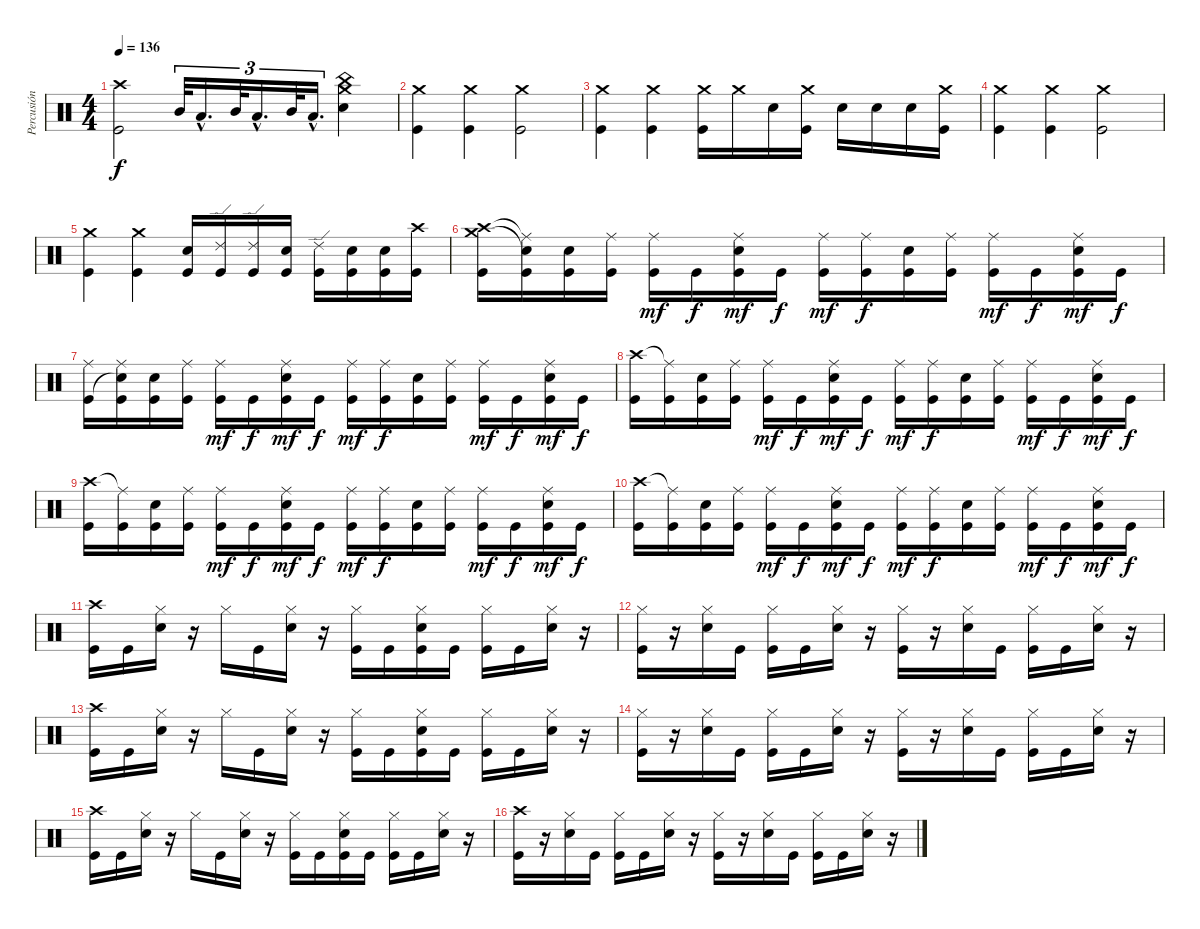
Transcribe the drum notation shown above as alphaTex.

\track ("Percusión" "Percusión") {instrument percussion}
\staff {score}
\articulation defaults
\ts (4 4)
\tempo 136
\clef neutral
\ks c
("Crash high (hit)" "Kick (hit)").2{dy f} "Mid Tom (hit)".32{tu (3 2)} "Low Tom (hit)"{hac}.16{d tu (3 2)} "Mid Tom (hit)".32{tu (3 2)} "Low Tom (hit)"{hac}.16{d tu (3 2)} "Mid Tom (hit)".32{tu (3 2)} "Low Tom (hit)"{hac}.16{d tu (3 2)} ("China (hit)" "Crash medium (hit)" "Snare (hit) 2").4 |
("Crash medium (hit)" "Kick (hit)").4 ("Crash medium (hit)" "Kick (hit)").4 ("Crash medium (hit)" "Kick (hit)").2 |
("Crash medium (hit)" "Kick (hit)").4 ("Crash medium (hit)" "Kick (hit)").4 ("Crash medium (hit)" "Kick (hit)").16 "Crash medium (hit)".16 "Snare (hit) 2".16 ("Crash medium (hit)" "Kick (hit)").16 "Snare (hit) 2".16 "Snare (hit) 2".16 "Snare (hit) 2".16 ("Crash medium (hit)" "Kick (hit)").16 |
("Crash medium (hit)" "Kick (hit)").4 ("Crash medium (hit)" "Kick (hit)").4 ("Crash medium (hit)" "Kick (hit)").2 |
("Crash medium (hit)" "Kick (hit)").4 ("Crash medium (hit)" "Kick (hit)").4 ("Snare (hit) 2" "Kick (hit)").16 ("Ride (edge) 2" "Kick (hit)").16 ("Ride (edge) 2" "Kick (hit)").16 ("Snare (hit) 2" "Kick (hit)").16 ("Ride (edge) 2" "Kick (hit)").16 ("Snare (hit) 2" "Kick (hit)").16 ("Snare (hit) 2" "Kick (hit)").16 ("Crash high (hit)" "Kick (hit)").16 |
("Crash high (hit)" "Crash medium (hit)" "Kick (hit)").16 ("Ride (middle)"{t} "Snare (hit)"{t} "Kick (hit)").16 ("Snare (hit) 2" "Kick (hit)").16 ("Ride (middle)" "Kick (hit)").16 ("Ride (middle)" "Kick (hit)").16{dy mf} "Kick (hit)".16{dy f} ("Ride (middle)" "Snare (hit) 2" "Kick (hit)").16{dy mf} "Kick (hit)".16{dy f} ("Ride (middle)" "Kick (hit)").16{dy mf} ("Ride (middle)" "Kick (hit)").16{dy f} ("Snare (hit) 2" "Kick (hit)").16 ("Ride (middle)" "Kick (hit)").16 ("Ride (middle)" "Kick (hit)").16{dy mf} "Kick (hit)".16{dy f} ("Ride (middle)" "Snare (hit) 2" "Kick (hit)").16{dy mf} "Kick (hit)".16{dy f} |
("Ride (middle)" "Kick (hit)").16 ("Ride (middle)" "Snare (hit)"{t} "Kick (hit)").16 ("Snare (hit) 2" "Kick (hit)").16 ("Ride (middle)" "Kick (hit)").16 ("Ride (middle)" "Kick (hit)").16{dy mf} "Kick (hit)".16{dy f} ("Ride (middle)" "Snare (hit) 2" "Kick (hit)").16{dy mf} "Kick (hit)".16{dy f} ("Ride (middle)" "Kick (hit)").16{dy mf} ("Ride (middle)" "Kick (hit)").16{dy f} ("Snare (hit) 2" "Kick (hit)").16 ("Ride (middle)" "Kick (hit)").16 ("Ride (middle)" "Kick (hit)").16{dy mf} "Kick (hit)".16{dy f} ("Ride (middle)" "Snare (hit) 2" "Kick (hit)").16{dy mf} "Kick (hit)".16{dy f} |
("Crash high (hit)" "Kick (hit)").16 ("Ride (middle)"{t} "Kick (hit)").16 ("Snare (hit) 2" "Kick (hit)").16 ("Ride (middle)" "Kick (hit)").16 ("Ride (middle)" "Kick (hit)").16{dy mf} "Kick (hit)".16{dy f} ("Ride (middle)" "Snare (hit) 2" "Kick (hit)").16{dy mf} "Kick (hit)".16{dy f} ("Ride (middle)" "Kick (hit)").16{dy mf} ("Ride (middle)" "Kick (hit)").16{dy f} ("Snare (hit) 2" "Kick (hit)").16 ("Ride (middle)" "Kick (hit)").16 ("Ride (middle)" "Kick (hit)").16{dy mf} "Kick (hit)".16{dy f} ("Ride (middle)" "Snare (hit) 2" "Kick (hit)").16{dy mf} "Kick (hit)".16{dy f} |
("Crash high (hit)" "Kick (hit)").16 ("Ride (middle)"{t} "Kick (hit)").16 ("Snare (hit) 2" "Kick (hit)").16 ("Ride (middle)" "Kick (hit)").16 ("Ride (middle)" "Kick (hit)").16{dy mf} "Kick (hit)".16{dy f} ("Ride (middle)" "Snare (hit) 2" "Kick (hit)").16{dy mf} "Kick (hit)".16{dy f} ("Ride (middle)" "Kick (hit)").16{dy mf} ("Ride (middle)" "Kick (hit)").16{dy f} ("Snare (hit) 2" "Kick (hit)").16 ("Ride (middle)" "Kick (hit)").16 ("Ride (middle)" "Kick (hit)").16{dy mf} "Kick (hit)".16{dy f} ("Ride (middle)" "Snare (hit) 2" "Kick (hit)").16{dy mf} "Kick (hit)".16{dy f} |
("Crash high (hit)" "Kick (hit)").16 ("Ride (middle)"{t} "Kick (hit)").16 ("Snare (hit) 2" "Kick (hit)").16 ("Ride (middle)" "Kick (hit)").16 ("Ride (middle)" "Kick (hit)").16{dy mf} "Kick (hit)".16{dy f} ("Ride (middle)" "Snare (hit) 2" "Kick (hit)").16{dy mf} "Kick (hit)".16{dy f} ("Ride (middle)" "Kick (hit)").16{dy mf} ("Ride (middle)" "Kick (hit)").16{dy f} ("Snare (hit) 2" "Kick (hit)").16 ("Ride (middle)" "Kick (hit)").16 ("Ride (middle)" "Kick (hit)").16{dy mf} "Kick (hit)".16{dy f} ("Ride (middle)" "Snare (hit) 2" "Kick (hit)").16{dy mf} "Kick (hit)".16{dy f} |
("Crash high (hit)" "Kick (hit)").16 "Kick (hit)".16 ("Hi-Hat (closed)" "Snare (hit) 2").16 r.16 "Hi-Hat (closed)".16 "Kick (hit)".16 ("Hi-Hat (closed)" "Snare (hit) 2").16 r.16 ("Hi-Hat (closed)" "Kick (hit)").16 "Kick (hit)".16 ("Hi-Hat (closed)" "Snare (hit) 2" "Kick (hit)").16 "Kick (hit)".16 ("Hi-Hat (closed)" "Kick (hit)").16 "Kick (hit)".16 ("Hi-Hat (closed)" "Snare (hit) 2").16 r.16 |
("Hi-Hat (closed)" "Kick (hit)").16 r.16 ("Hi-Hat (closed)" "Snare (hit) 2").16 "Kick (hit)".16 ("Hi-Hat (closed)" "Kick (hit)").16 "Kick (hit)".16 ("Hi-Hat (closed)" "Snare (hit) 2").16 r.16 ("Hi-Hat (closed)" "Kick (hit)").16 r.16 ("Hi-Hat (closed)" "Snare (hit) 2").16 "Kick (hit)".16 ("Hi-Hat (closed)" "Kick (hit)").16 "Kick (hit)".16 ("Hi-Hat (closed)" "Snare (hit) 2").16 r.16 |
("Crash high (hit)" "Kick (hit)").16 "Kick (hit)".16 ("Hi-Hat (closed)" "Snare (hit) 2").16 r.16 "Hi-Hat (closed)".16 "Kick (hit)".16 ("Hi-Hat (closed)" "Snare (hit) 2").16 r.16 ("Hi-Hat (closed)" "Kick (hit)").16 "Kick (hit)".16 ("Hi-Hat (closed)" "Snare (hit) 2" "Kick (hit)").16 "Kick (hit)".16 ("Hi-Hat (closed)" "Kick (hit)").16 "Kick (hit)".16 ("Hi-Hat (closed)" "Snare (hit) 2").16 r.16 |
("Hi-Hat (closed)" "Kick (hit)").16 r.16 ("Hi-Hat (closed)" "Snare (hit) 2").16 "Kick (hit)".16 ("Hi-Hat (closed)" "Kick (hit)").16 "Kick (hit)".16 ("Hi-Hat (closed)" "Snare (hit) 2").16 r.16 ("Hi-Hat (closed)" "Kick (hit)").16 r.16 ("Hi-Hat (closed)" "Snare (hit) 2").16 "Kick (hit)".16 ("Hi-Hat (closed)" "Kick (hit)").16 "Kick (hit)".16 ("Hi-Hat (closed)" "Snare (hit) 2").16 r.16 |
("Crash high (hit)" "Kick (hit)").16 "Kick (hit)".16 ("Hi-Hat (closed)" "Snare (hit) 2").16 r.16 "Hi-Hat (closed)".16 "Kick (hit)".16 ("Hi-Hat (closed)" "Snare (hit) 2").16 r.16 ("Hi-Hat (closed)" "Kick (hit)").16 "Kick (hit)".16 ("Hi-Hat (closed)" "Snare (hit) 2" "Kick (hit)").16 "Kick (hit)".16 ("Hi-Hat (closed)" "Kick (hit)").16 "Kick (hit)".16 ("Hi-Hat (closed)" "Snare (hit) 2").16 r.16 |
("Crash high (hit)" "Kick (hit)").16 r.16 ("Hi-Hat (closed)" "Snare (hit) 2").16 "Kick (hit)".16 ("Hi-Hat (closed)" "Kick (hit)").16 "Kick (hit)".16 ("Hi-Hat (closed)" "Snare (hit) 2").16 r.16 ("Hi-Hat (closed)" "Kick (hit)").16 r.16 ("Hi-Hat (closed)" "Snare (hit) 2").16 "Kick (hit)".16 ("Hi-Hat (closed)" "Kick (hit)").16 "Kick (hit)".16 ("Hi-Hat (closed)" "Snare (hit) 2").16 r.16
